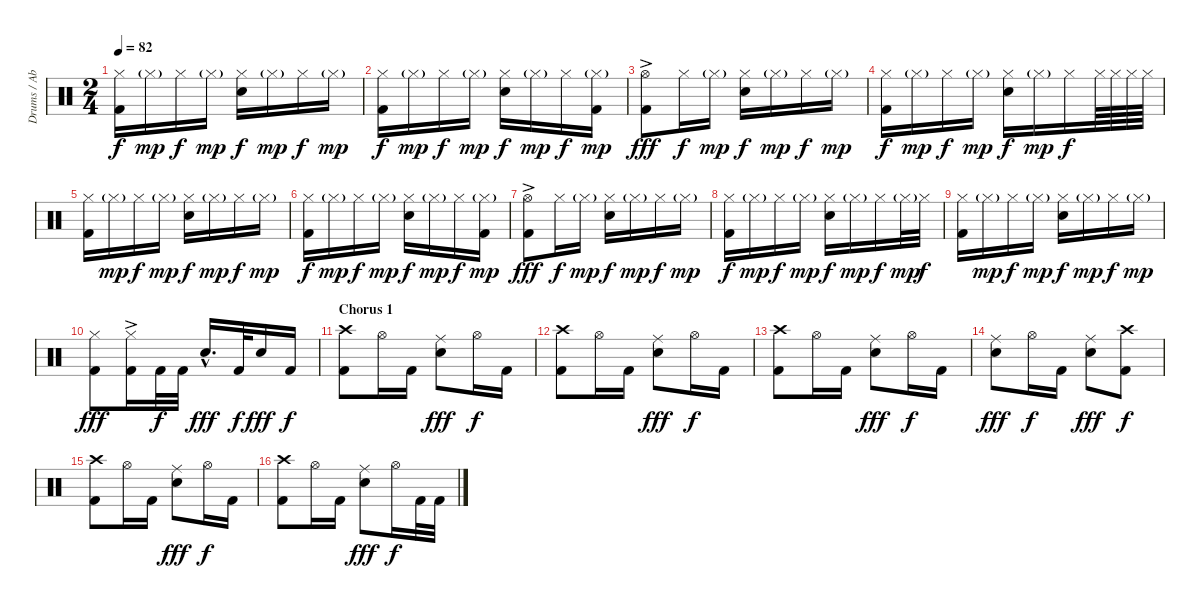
\track ("Drums / Abe Cunningham" "Drums / Ab") {instrument percussion}
\staff {score}
\articulation defaults
\ts (2 4)
\tempo 82
\clef neutral
\ks c
("Hi-Hat (closed)" "Kick (hit) 2").16{dy f} "Hi-Hat (closed)"{g}.16{dy mp} "Hi-Hat (closed)".16{dy f} "Hi-Hat (closed)"{g}.16{dy mp} ("Hi-Hat (closed)" "Electric Snare (hit)").16{dy f} "Hi-Hat (closed)"{g}.16{dy mp} "Hi-Hat (closed)".16{dy f} "Hi-Hat (closed)"{g}.16{dy mp} |
("Hi-Hat (closed)" "Kick (hit) 2").16{dy f} "Hi-Hat (closed)"{g}.16{dy mp} "Hi-Hat (closed)".16{dy f} "Hi-Hat (closed)"{g}.16{dy mp} ("Hi-Hat (closed)" "Electric Snare (hit)").16{dy f} "Hi-Hat (closed)"{g}.16{dy mp} "Hi-Hat (closed)".16{dy f} ("Hi-Hat (closed)"{g} "Kick (hit) 2").16{dy mp} |
("Hi-Hat (open)"{ac} "Kick (hit) 2").8{dy fff} "Hi-Hat (closed)".16{dy f} "Hi-Hat (closed)"{g}.16{dy mp} ("Hi-Hat (closed)" "Electric Snare (hit)").16{dy f} "Hi-Hat (closed)"{g}.16{dy mp} "Hi-Hat (closed)".16{dy f} "Hi-Hat (closed)"{g}.16{dy mp} |
("Hi-Hat (closed)" "Kick (hit) 2").16{dy f} "Hi-Hat (closed)"{g}.16{dy mp} "Hi-Hat (closed)".16{dy f} "Hi-Hat (closed)"{g}.16{dy mp} ("Hi-Hat (closed)" "Electric Snare (hit)").16{dy f} "Hi-Hat (closed)"{g}.16{dy mp} "Hi-Hat (closed)".16{dy f} "Hi-Hat (closed)".64 "Hi-Hat (closed)".64 "Hi-Hat (closed)".64 "Hi-Hat (closed)".64 |
("Hi-Hat (closed)" "Kick (hit) 2").16 "Hi-Hat (closed)"{g}.16{dy mp} "Hi-Hat (closed)".16{dy f} "Hi-Hat (closed)"{g}.16{dy mp} ("Hi-Hat (closed)" "Electric Snare (hit)").16{dy f} "Hi-Hat (closed)"{g}.16{dy mp} "Hi-Hat (closed)".16{dy f} "Hi-Hat (closed)"{g}.16{dy mp} |
("Hi-Hat (closed)" "Kick (hit) 2").16{dy f} "Hi-Hat (closed)"{g}.16{dy mp} "Hi-Hat (closed)".16{dy f} "Hi-Hat (closed)"{g}.16{dy mp} ("Hi-Hat (closed)" "Electric Snare (hit)").16{dy f} "Hi-Hat (closed)"{g}.16{dy mp} "Hi-Hat (closed)".16{dy f} ("Hi-Hat (closed)"{g} "Kick (hit) 2").16{dy mp} |
("Hi-Hat (open)"{ac} "Kick (hit) 2").8{dy fff} "Hi-Hat (closed)".16{dy f} "Hi-Hat (closed)"{g}.16{dy mp} ("Hi-Hat (closed)" "Electric Snare (hit)").16{dy f} "Hi-Hat (closed)"{g}.16{dy mp} "Hi-Hat (closed)".16{dy f} "Hi-Hat (closed)"{g}.16{dy mp} |
("Hi-Hat (closed)" "Kick (hit) 2").16{dy f} "Hi-Hat (closed)"{g}.16{dy mp} "Hi-Hat (closed)".16{dy f} "Hi-Hat (closed)"{g}.16{dy mp} ("Hi-Hat (closed)" "Electric Snare (hit)").16{dy f} "Hi-Hat (closed)"{g}.16{dy mp} "Hi-Hat (closed)".16{dy f} "Hi-Hat (closed)"{g}.32{dy mp} "Hi-Hat (closed)".32{dy f} |
("Hi-Hat (closed)" "Kick (hit) 2").16 "Hi-Hat (closed)"{g}.16{dy mp} "Hi-Hat (closed)".16{dy f} "Hi-Hat (closed)"{g}.16{dy mp} ("Hi-Hat (closed)" "Electric Snare (hit)").16{dy f} "Hi-Hat (closed)"{g}.16{dy mp} "Hi-Hat (closed)".16{dy f} "Hi-Hat (closed)"{g}.16{dy mp} |
("Hi-Hat (closed)" "Kick (hit) 2").8{dy fff} ("Hi-Hat (closed)"{ac} "Kick (hit) 2").16 "Kick (hit) 2".32{dy f} "Kick (hit) 2".32 "Electric Snare (hit)"{hac}.16{d dy fff} "Kick (hit) 2".32{dy f} "Electric Snare (hit)".16{dy fff} "Kick (hit) 2".16{dy f} |
\section ("" "Chorus 1")
("Crash high (hit)" "Kick (hit) 2").8 "Hi-Hat (open)".16 "Kick (hit) 2".16 ("Ride (middle)" "Electric Snare (hit)").8{dy fff} "Hi-Hat (open)".16{dy f} "Kick (hit) 2".16 |
("Crash high (hit)" "Kick (hit) 2").8 "Hi-Hat (open)".16 "Kick (hit) 2".16 ("Ride (middle)" "Electric Snare (hit)").8{dy fff} "Hi-Hat (open)".16{dy f} "Kick (hit) 2".16 |
("Crash high (hit)" "Kick (hit) 2").8 "Hi-Hat (open)".16 "Kick (hit) 2".16 ("Ride (middle)" "Electric Snare (hit)").8{dy fff} "Hi-Hat (open)".16{dy f} "Kick (hit) 2".16 |
("Ride (middle)" "Electric Snare (hit)").8{dy fff} "Hi-Hat (open)".16{dy f} "Kick (hit) 2".16 ("Ride (middle)" "Electric Snare (hit)").8{dy fff} ("Crash high (hit)" "Kick (hit) 2").8{dy f} |
("Crash high (hit)" "Kick (hit) 2").8 "Hi-Hat (open)".16 "Kick (hit) 2".16 ("Ride (middle)" "Electric Snare (hit)").8{dy fff} "Hi-Hat (open)".16{dy f} "Kick (hit) 2".16 |
("Crash high (hit)" "Kick (hit) 2").8 "Hi-Hat (open)".16 "Kick (hit) 2".16 ("Ride (middle)" "Electric Snare (hit)").8{dy fff} "Hi-Hat (open)".16{dy f} "Kick (hit) 2".32 "Kick (hit) 2".32
